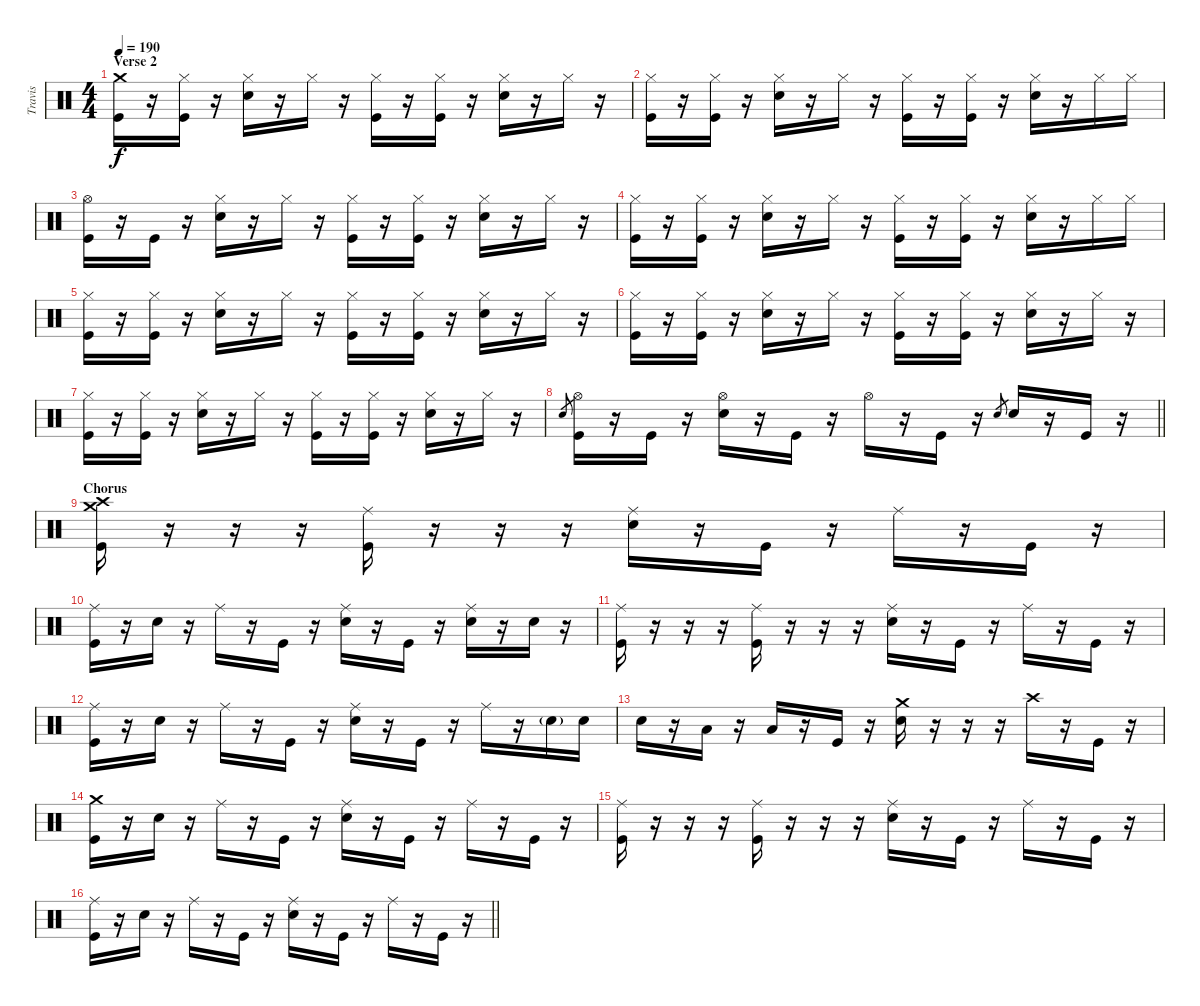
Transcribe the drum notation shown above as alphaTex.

\track ("Travis" "Travis") {instrument percussion}
\staff {score}
\articulation defaults
\ts (4 4)
\section ("" "Verse 2")
\tempo 190
\clef neutral
\ks c
("Crash medium (hit)" "Kick (hit)").16{dy f} r.16 ("Hi-Hat (closed)" "Kick (hit)").16 r.16 ("Hi-Hat (closed)" "Snare (hit) 2").16 r.16 "Hi-Hat (closed)".16 r.16 ("Hi-Hat (closed)" "Kick (hit)").16 r.16 ("Hi-Hat (closed)" "Kick (hit)").16 r.16 ("Hi-Hat (closed)" "Snare (hit) 2").16 r.16 "Hi-Hat (closed)".16 r.16 |
("Hi-Hat (closed)" "Kick (hit)").16 r.16 ("Hi-Hat (closed)" "Kick (hit)").16 r.16 ("Hi-Hat (closed)" "Snare (hit) 2").16 r.16 "Hi-Hat (closed)".16 r.16 ("Hi-Hat (closed)" "Kick (hit)").16 r.16 ("Hi-Hat (closed)" "Kick (hit)").16 r.16 ("Hi-Hat (closed)" "Snare (hit) 2").16 r.16 "Hi-Hat (closed)".16 "Hi-Hat (closed)".16 |
("Hi-Hat (open)" "Kick (hit)").16 r.16 "Kick (hit)".16 r.16 ("Hi-Hat (closed)" "Snare (hit) 2").16 r.16 "Hi-Hat (closed)".16 r.16 ("Hi-Hat (closed)" "Kick (hit)").16 r.16 ("Hi-Hat (closed)" "Kick (hit)").16 r.16 ("Hi-Hat (closed)" "Snare (hit) 2").16 r.16 "Hi-Hat (closed)".16 r.16 |
("Hi-Hat (closed)" "Kick (hit)").16 r.16 ("Hi-Hat (closed)" "Kick (hit)").16 r.16 ("Hi-Hat (closed)" "Snare (hit) 2").16 r.16 "Hi-Hat (closed)".16 r.16 ("Hi-Hat (closed)" "Kick (hit)").16 r.16 ("Hi-Hat (closed)" "Kick (hit)").16 r.16 ("Hi-Hat (closed)" "Snare (hit) 2").16 r.16 "Hi-Hat (closed)".16 "Hi-Hat (closed)".16 |
("Hi-Hat (closed)" "Kick (hit)").16 r.16 ("Hi-Hat (closed)" "Kick (hit)").16 r.16 ("Hi-Hat (closed)" "Snare (hit) 2").16 r.16 "Hi-Hat (closed)".16 r.16 ("Hi-Hat (closed)" "Kick (hit)").16 r.16 ("Hi-Hat (closed)" "Kick (hit)").16 r.16 ("Hi-Hat (closed)" "Snare (hit) 2").16 r.16 "Hi-Hat (closed)".16 r.16 |
("Hi-Hat (closed)" "Kick (hit)").16 r.16 ("Hi-Hat (closed)" "Kick (hit)").16 r.16 ("Hi-Hat (closed)" "Snare (hit) 2").16 r.16 "Hi-Hat (closed)".16 r.16 ("Hi-Hat (closed)" "Kick (hit)").16 r.16 ("Hi-Hat (closed)" "Kick (hit)").16 r.16 ("Hi-Hat (closed)" "Snare (hit) 2").16 r.16 "Hi-Hat (closed)".16 r.16 |
("Hi-Hat (closed)" "Kick (hit)").16 r.16 ("Hi-Hat (closed)" "Kick (hit)").16 r.16 ("Hi-Hat (closed)" "Snare (hit) 2").16 r.16 "Hi-Hat (closed)".16 r.16 ("Hi-Hat (closed)" "Kick (hit)").16 r.16 ("Hi-Hat (closed)" "Kick (hit)").16 r.16 ("Hi-Hat (closed)" "Snare (hit) 2").16 r.16 "Hi-Hat (closed)".16 r.16 |
\barLineRight lightlight "Snare (hit)".8{gr}
("Hi-Hat (open)" "Kick (hit)").16 r.16 "Kick (hit)".16 r.16 ("Hi-Hat (open)" "Snare (hit) 2").16 r.16 "Kick (hit)".16 r.16 "Hi-Hat (open)".16 r.16 "Kick (hit)".16 r.16 "Snare (hit)".8{gr} "Snare (hit) 2".16 r.16 "Kick (hit)".16 r.16 |
\section ("" "Chorus")
("Crash medium (hit)" "Crash high (hit)" "Kick (hit)").16 r.16 r.16 r.16 ("Ride (middle)" "Kick (hit)").16 r.16 r.16 r.16 ("Ride (middle)" "Snare (hit) 2").16 r.16 "Kick (hit)".16 r.16 "Ride (middle)".16 r.16 "Kick (hit)".16 r.16 |
("Ride (middle)" "Kick (hit)").16 r.16 "Snare (hit) 2".16 r.16 "Ride (middle)".16 r.16 "Kick (hit)".16 r.16 ("Ride (middle)" "Snare (hit) 2").16 r.16 "Kick (hit)".16 r.16 ("Ride (middle)" "Snare (hit) 2").16 r.16 "Snare (hit) 2".16 r.16 |
("Ride (middle)" "Kick (hit)").16 r.16 r.16 r.16 ("Ride (middle)" "Kick (hit)").16 r.16 r.16 r.16 ("Ride (middle)" "Snare (hit) 2").16 r.16 "Kick (hit)".16 r.16 "Ride (middle)".16 r.16 "Kick (hit)".16 r.16 |
("Ride (middle)" "Kick (hit)").16 r.16 "Snare (hit) 2".16 r.16 "Ride (middle)".16 r.16 "Kick (hit)".16 r.16 ("Ride (middle)" "Snare (hit) 2").16 r.16 "Kick (hit)".16 r.16 "Ride (middle)".16 r.16 "Snare (hit) 2"{g}.16 "Snare (hit) 2".16 |
"Snare (hit) 2".16 r.16 "Low Tom (hit)".16 r.16 "Low Floor Tom (hit)".16 r.16 "Kick (hit)".16 r.16 ("Crash medium (hit)" "Snare (hit) 2").16 r.16 r.16 r.16 "Crash high (hit)".16 r.16 "Kick (hit)".16 r.16 |
("Crash medium (hit)" "Kick (hit)").16 r.16 "Snare (hit) 2".16 r.16 "Ride (middle)".16 r.16 "Kick (hit)".16 r.16 ("Ride (middle)" "Snare (hit) 2").16 r.16 "Kick (hit)".16 r.16 "Ride (middle)".16 r.16 "Kick (hit)".16 r.16 |
("Ride (middle)" "Kick (hit)").16 r.16 r.16 r.16 ("Ride (middle)" "Kick (hit)").16 r.16 r.16 r.16 ("Ride (middle)" "Snare (hit) 2").16 r.16 "Kick (hit)".16 r.16 "Ride (middle)".16 r.16 "Kick (hit)".16 r.16 |
\barLineRight lightlight
("Ride (middle)" "Kick (hit)").16 r.16 "Snare (hit) 2".16 r.16 "Ride (middle)".16 r.16 "Kick (hit)".16 r.16 ("Ride (middle)" "Snare (hit) 2").16 r.16 "Kick (hit)".16 r.16 "Ride (middle)".16 r.16 "Kick (hit)".16 r.16
